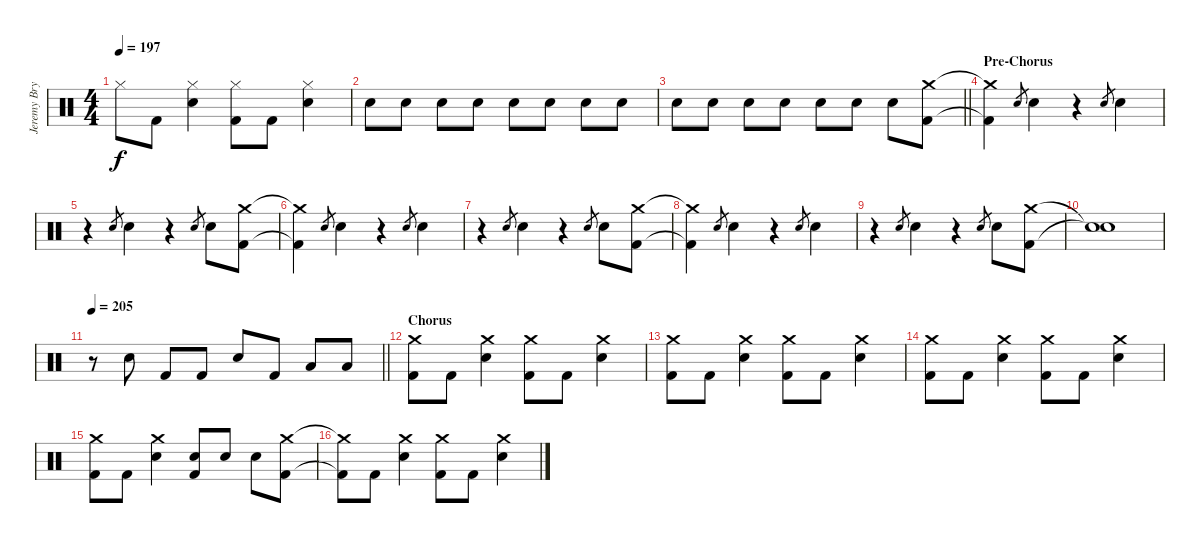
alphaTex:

\track ("Jeremy Bryan - Drums" "Jeremy Bry") {instrument percussion}
\staff {score}
\articulation defaults
\ts (4 4)
\tempo 197
\clef neutral
\ks c "Hi-Hat (closed)".8{dy f} "Kick (hit) 2".8
("Hi-Hat (closed)" "Electric Snare (hit)").4 ("Hi-Hat (closed)" "Kick (hit) 2").8 "Kick (hit) 2".8 ("Hi-Hat (closed)" "Electric Snare (hit)").4 |
"Electric Snare (hit)".8 "Electric Snare (hit)".8{volume 6} "Electric Snare (hit)".8{volume 12} "Electric Snare (hit)".8 "Electric Snare (hit)".8 "Electric Snare (hit)".8 "Electric Snare (hit)".8 "Electric Snare (hit)".8 |
\barLineRight lightlight "Electric Snare (hit)".8 "Electric Snare (hit)".8 "Electric Snare (hit)".8 "Electric Snare (hit)".8 "Electric Snare (hit)".8 "Electric Snare (hit)".8 "Electric Snare (hit)".8
("Crash medium (hit)" "Kick (hit) 2").8 |
\section ("" "Pre-Chorus")
("Crash medium (hit)"{t} "Kick (hit) 2"{t}).4 "Electric Snare (hit)".8{gr} "Electric Snare (hit)".4 r.4 "Electric Snare (hit)".8{gr} "Electric Snare (hit)".4 |
r.4 "Electric Snare (hit)".8{gr} "Electric Snare (hit)".4 r.4 "Electric Snare (hit)".8{gr} "Electric Snare (hit)".8 ("Crash medium (hit)" "Kick (hit) 2").8 |
("Crash medium (hit)"{t} "Kick (hit) 2"{t}).4 "Electric Snare (hit)".8{gr} "Electric Snare (hit)".4 r.4 "Electric Snare (hit)".8{gr} "Electric Snare (hit)".4 |
r.4 "Electric Snare (hit)".8{gr} "Electric Snare (hit)".4 r.4 "Electric Snare (hit)".8{gr} "Electric Snare (hit)".8 ("Crash medium (hit)" "Kick (hit) 2").8 |
("Crash medium (hit)"{t} "Kick (hit) 2"{t}).4 "Electric Snare (hit)".8{gr} "Electric Snare (hit)".4 r.4 "Electric Snare (hit)".8{gr} "Electric Snare (hit)".4 |
r.4 "Electric Snare (hit)".8{gr} "Electric Snare (hit)".4 r.4 "Electric Snare (hit)".8{gr} "Electric Snare (hit)".8 ("Crash medium (hit)" "Kick (hit) 2").8 |
("Snare (hit)"{t} "Snare (hit)"{t}).1 |
\tempo 205
\barLineRight lightlight
r.8 "Electric Snare (hit)".8 "Kick (hit) 2".8 "Kick (hit) 2".8 "Electric Snare (hit)".8 "Kick (hit) 2".8 "Low Tom (hit)".8 "Low Tom (hit)".8 |
\section ("" "Chorus")
("Crash medium (hit)" "Kick (hit) 2").8 "Kick (hit) 2".8 ("Crash medium (hit)" "Electric Snare (hit)").4 ("Crash medium (hit)" "Kick (hit) 2").8 "Kick (hit) 2".8 ("Crash medium (hit)" "Electric Snare (hit)").4 |
("Crash medium (hit)" "Kick (hit) 2").8 "Kick (hit) 2".8 ("Crash medium (hit)" "Electric Snare (hit)").4 ("Crash medium (hit)" "Kick (hit) 2").8 "Kick (hit) 2".8 ("Crash medium (hit)" "Electric Snare (hit)").4 |
("Crash medium (hit)" "Kick (hit) 2").8 "Kick (hit) 2".8 ("Crash medium (hit)" "Electric Snare (hit)").4 ("Crash medium (hit)" "Kick (hit) 2").8 "Kick (hit) 2".8 ("Crash medium (hit)" "Electric Snare (hit)").4 |
("Crash medium (hit)" "Kick (hit) 2").8 "Kick (hit) 2".8 ("Crash medium (hit)" "Electric Snare (hit)").4 ("Kick (hit) 2" "Electric Snare (hit)").8 "Electric Snare (hit)".8 "Electric Snare (hit)".8 ("Crash medium (hit)" "Kick (hit) 2").8 |
("Crash medium (hit)"{t} "Kick (hit) 2"{t}).8 "Kick (hit) 2".8 ("Crash medium (hit)" "Electric Snare (hit)").4 ("Crash medium (hit)" "Kick (hit) 2").8 "Kick (hit) 2".8 ("Crash medium (hit)" "Electric Snare (hit)").4
